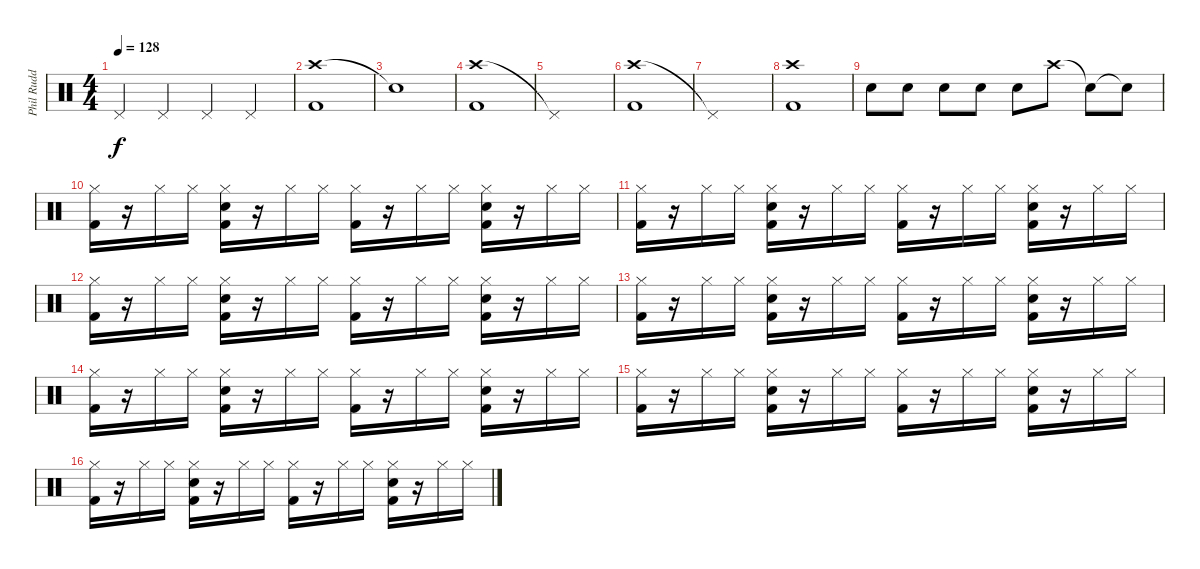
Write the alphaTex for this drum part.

\track ("Phil Rudd" "Phil Rudd") {instrument percussion}
\staff {score}
\articulation defaults
\ts (4 4)
\tempo 128
\clef neutral
\ks c "Pedal Hi-Hat (hit)".4{dy f} "Pedal Hi-Hat (hit)".4 "Pedal Hi-Hat (hit)".4 "Pedal Hi-Hat (hit)".4
|
("Crash high (hit)" "Kick (hit) 2").1 |
"Snare (hit)"{t}.1 |
("Crash high (hit)" "Kick (hit) 2").1 |
"Pedal Hi-Hat (hit)"{t}.1 |
("Crash high (hit)" "Kick (hit) 2").1 |
"Pedal Hi-Hat (hit)"{t}.1 |
("Crash high (hit)" "Kick (hit) 2").1 |
"Snare (hit) 2".8 "Snare (hit) 2".8 "Snare (hit) 2".8 "Snare (hit) 2".8 "Snare (hit) 2".8 "Crash high (hit)".8 "Snare (hit)"{t}.8 "Snare (hit)"{t}.8 |
("Hi-Hat (closed)" "Kick (hit) 2").16 r.16 "Hi-Hat (closed)".16 "Hi-Hat (closed)".16 ("Hi-Hat (closed)" "Snare (hit) 2" "Kick (hit) 2").16 r.16 "Hi-Hat (closed)".16 "Hi-Hat (closed)".16 ("Hi-Hat (closed)" "Kick (hit) 2").16 r.16 "Hi-Hat (closed)".16 "Hi-Hat (closed)".16 ("Hi-Hat (closed)" "Snare (hit) 2" "Kick (hit) 2").16 r.16 "Hi-Hat (closed)".16 "Hi-Hat (closed)".16 |
("Hi-Hat (closed)" "Kick (hit) 2").16 r.16 "Hi-Hat (closed)".16 "Hi-Hat (closed)".16 ("Hi-Hat (closed)" "Snare (hit) 2" "Kick (hit) 2").16 r.16 "Hi-Hat (closed)".16 "Hi-Hat (closed)".16 ("Hi-Hat (closed)" "Kick (hit) 2").16 r.16 "Hi-Hat (closed)".16 "Hi-Hat (closed)".16 ("Hi-Hat (closed)" "Snare (hit) 2" "Kick (hit) 2").16 r.16 "Hi-Hat (closed)".16 "Hi-Hat (closed)".16 |
("Hi-Hat (closed)" "Kick (hit) 2").16 r.16 "Hi-Hat (closed)".16 "Hi-Hat (closed)".16 ("Hi-Hat (closed)" "Snare (hit) 2" "Kick (hit) 2").16 r.16 "Hi-Hat (closed)".16 "Hi-Hat (closed)".16 ("Hi-Hat (closed)" "Kick (hit) 2").16 r.16 "Hi-Hat (closed)".16 "Hi-Hat (closed)".16 ("Hi-Hat (closed)" "Snare (hit) 2" "Kick (hit) 2").16 r.16 "Hi-Hat (closed)".16 "Hi-Hat (closed)".16 |
("Hi-Hat (closed)" "Kick (hit) 2").16 r.16 "Hi-Hat (closed)".16 "Hi-Hat (closed)".16 ("Hi-Hat (closed)" "Snare (hit) 2" "Kick (hit) 2").16 r.16 "Hi-Hat (closed)".16 "Hi-Hat (closed)".16 ("Hi-Hat (closed)" "Kick (hit) 2").16 r.16 "Hi-Hat (closed)".16 "Hi-Hat (closed)".16 ("Hi-Hat (closed)" "Snare (hit) 2" "Kick (hit) 2").16 r.16 "Hi-Hat (closed)".16 "Hi-Hat (closed)".16 |
("Hi-Hat (closed)" "Kick (hit) 2").16 r.16 "Hi-Hat (closed)".16 "Hi-Hat (closed)".16 ("Hi-Hat (closed)" "Snare (hit) 2" "Kick (hit) 2").16 r.16 "Hi-Hat (closed)".16 "Hi-Hat (closed)".16 ("Hi-Hat (closed)" "Kick (hit) 2").16 r.16 "Hi-Hat (closed)".16 "Hi-Hat (closed)".16 ("Hi-Hat (closed)" "Snare (hit) 2" "Kick (hit) 2").16 r.16 "Hi-Hat (closed)".16 "Hi-Hat (closed)".16 |
("Hi-Hat (closed)" "Kick (hit) 2").16 r.16 "Hi-Hat (closed)".16 "Hi-Hat (closed)".16 ("Hi-Hat (closed)" "Snare (hit) 2" "Kick (hit) 2").16 r.16 "Hi-Hat (closed)".16 "Hi-Hat (closed)".16 ("Hi-Hat (closed)" "Kick (hit) 2").16 r.16 "Hi-Hat (closed)".16 "Hi-Hat (closed)".16 ("Hi-Hat (closed)" "Snare (hit) 2" "Kick (hit) 2").16 r.16 "Hi-Hat (closed)".16 "Hi-Hat (closed)".16 |
("Hi-Hat (closed)" "Kick (hit) 2").16 r.16 "Hi-Hat (closed)".16 "Hi-Hat (closed)".16 ("Hi-Hat (closed)" "Snare (hit) 2" "Kick (hit) 2").16 r.16 "Hi-Hat (closed)".16 "Hi-Hat (closed)".16 ("Hi-Hat (closed)" "Kick (hit) 2").16 r.16 "Hi-Hat (closed)".16 "Hi-Hat (closed)".16 ("Hi-Hat (closed)" "Snare (hit) 2" "Kick (hit) 2").16 r.16 "Hi-Hat (closed)".16 "Hi-Hat (closed)".16
